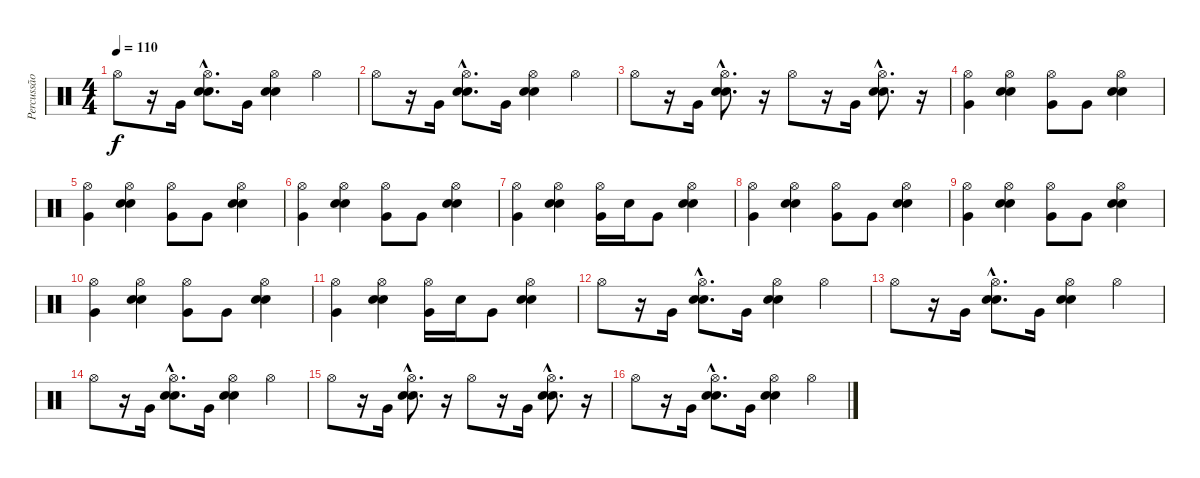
\track ("Percussão" "Percussão") {instrument percussion}
\staff {score}
\articulation defaults
\ts (4 4)
\tempo 110
\clef neutral
\ks c "Hi-Hat (open)".8{dy f}
r.16 "Very Low Tom (hit)".16 ("Hi-Hat (open)"{hac} "Electric Snare (hit)"{hac} "Snare (hit) 2"{hac}).8{d} "Very Low Tom (hit)".16 ("Hi-Hat (open)" "Electric Snare (hit)" "Snare (hit) 2").4 "Hi-Hat (open)".4 |
"Hi-Hat (open)".8 r.16 "Very Low Tom (hit)".16 ("Hi-Hat (open)"{hac} "Electric Snare (hit)"{hac} "Snare (hit) 2"{hac}).8{d} "Very Low Tom (hit)".16 ("Hi-Hat (open)" "Electric Snare (hit)" "Snare (hit) 2").4 "Hi-Hat (open)".4 |
"Hi-Hat (open)".8 r.16 "Very Low Tom (hit)".16 ("Hi-Hat (open)"{hac} "Electric Snare (hit)"{hac} "Snare (hit) 2"{hac}).8{d} r.16 "Hi-Hat (open)".8 r.16 "Very Low Tom (hit)".16 ("Hi-Hat (open)"{hac} "Electric Snare (hit)"{hac} "Snare (hit) 2"{hac}).8{d} r.16 |
("Hi-Hat (open)" "Very Low Tom (hit)").4 ("Hi-Hat (open)" "Electric Snare (hit)" "Snare (hit) 2").4 ("Hi-Hat (open)" "Very Low Tom (hit)").8 "Very Low Tom (hit)".8 ("Hi-Hat (open)" "Electric Snare (hit)" "Snare (hit) 2").4 |
("Hi-Hat (open)" "Very Low Tom (hit)").4 ("Hi-Hat (open)" "Electric Snare (hit)" "Snare (hit) 2").4 ("Hi-Hat (open)" "Very Low Tom (hit)").8 "Very Low Tom (hit)".8 ("Hi-Hat (open)" "Electric Snare (hit)" "Snare (hit) 2").4 |
("Hi-Hat (open)" "Very Low Tom (hit)").4 ("Hi-Hat (open)" "Electric Snare (hit)" "Snare (hit) 2").4 ("Hi-Hat (open)" "Very Low Tom (hit)").8 "Very Low Tom (hit)".8 ("Hi-Hat (open)" "Electric Snare (hit)" "Snare (hit) 2").4 |
("Hi-Hat (open)" "Very Low Tom (hit)").4 ("Hi-Hat (open)" "Electric Snare (hit)" "Snare (hit) 2").4 ("Hi-Hat (open)" "Very Low Tom (hit)").16 "Electric Snare (hit)".16 "Very Low Tom (hit)".8 ("Hi-Hat (open)" "Electric Snare (hit)" "Snare (hit) 2").4 |
("Hi-Hat (open)" "Very Low Tom (hit)").4 ("Hi-Hat (open)" "Electric Snare (hit)" "Snare (hit) 2").4 ("Hi-Hat (open)" "Very Low Tom (hit)").8 "Very Low Tom (hit)".8 ("Hi-Hat (open)" "Electric Snare (hit)" "Snare (hit) 2").4 |
("Hi-Hat (open)" "Very Low Tom (hit)").4 ("Hi-Hat (open)" "Electric Snare (hit)" "Snare (hit) 2").4 ("Hi-Hat (open)" "Very Low Tom (hit)").8 "Very Low Tom (hit)".8 ("Hi-Hat (open)" "Electric Snare (hit)" "Snare (hit) 2").4 |
("Hi-Hat (open)" "Very Low Tom (hit)").4 ("Hi-Hat (open)" "Electric Snare (hit)" "Snare (hit) 2").4 ("Hi-Hat (open)" "Very Low Tom (hit)").8 "Very Low Tom (hit)".8 ("Hi-Hat (open)" "Electric Snare (hit)" "Snare (hit) 2").4 |
("Hi-Hat (open)" "Very Low Tom (hit)").4 ("Hi-Hat (open)" "Electric Snare (hit)" "Snare (hit) 2").4 ("Hi-Hat (open)" "Very Low Tom (hit)").16 "Electric Snare (hit)".16 "Very Low Tom (hit)".8 ("Hi-Hat (open)" "Electric Snare (hit)" "Snare (hit) 2").4 |
"Hi-Hat (open)".8 r.16 "Very Low Tom (hit)".16 ("Hi-Hat (open)"{hac} "Electric Snare (hit)"{hac} "Snare (hit) 2"{hac}).8{d} "Very Low Tom (hit)".16 ("Hi-Hat (open)" "Electric Snare (hit)" "Snare (hit) 2").4 "Hi-Hat (open)".4 |
"Hi-Hat (open)".8 r.16 "Very Low Tom (hit)".16 ("Hi-Hat (open)"{hac} "Electric Snare (hit)"{hac} "Snare (hit) 2"{hac}).8{d} "Very Low Tom (hit)".16 ("Hi-Hat (open)" "Electric Snare (hit)" "Snare (hit) 2").4 "Hi-Hat (open)".4 |
"Hi-Hat (open)".8 r.16 "Very Low Tom (hit)".16 ("Hi-Hat (open)"{hac} "Electric Snare (hit)"{hac} "Snare (hit) 2"{hac}).8{d} "Very Low Tom (hit)".16 ("Hi-Hat (open)" "Electric Snare (hit)" "Snare (hit) 2").4 "Hi-Hat (open)".4 |
"Hi-Hat (open)".8 r.16 "Very Low Tom (hit)".16 ("Hi-Hat (open)"{hac} "Electric Snare (hit)"{hac} "Snare (hit) 2"{hac}).8{d} r.16 "Hi-Hat (open)".8 r.16 "Very Low Tom (hit)".16 ("Hi-Hat (open)"{hac} "Electric Snare (hit)"{hac} "Snare (hit) 2"{hac}).8{d} r.16 |
"Hi-Hat (open)".8 r.16 "Very Low Tom (hit)".16 ("Hi-Hat (open)"{hac} "Electric Snare (hit)"{hac} "Snare (hit) 2"{hac}).8{d} "Very Low Tom (hit)".16 ("Hi-Hat (open)" "Electric Snare (hit)" "Snare (hit) 2").4 "Hi-Hat (open)".4
